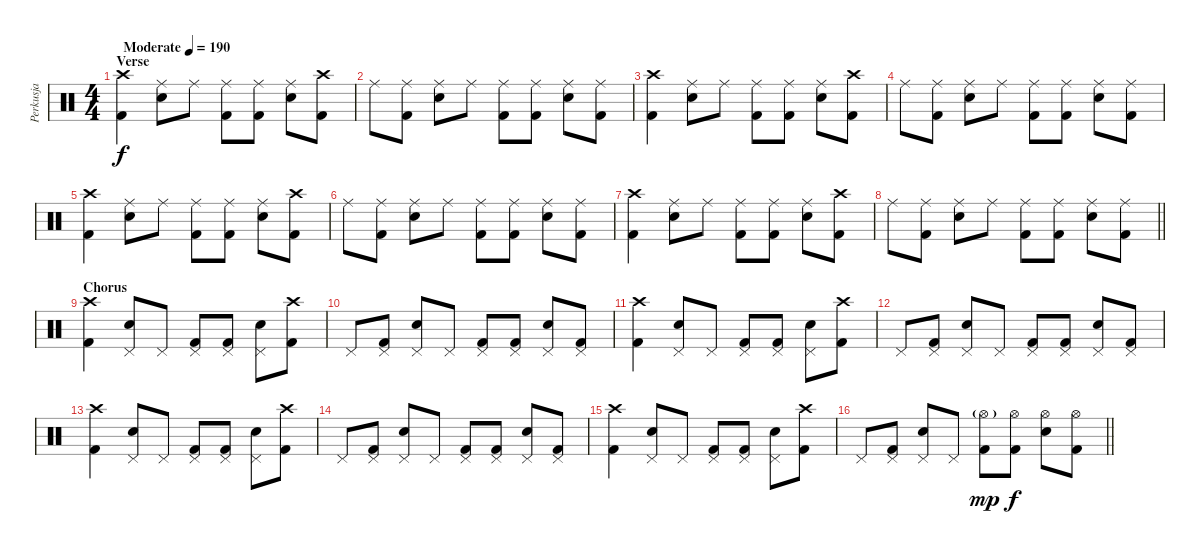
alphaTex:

\track ("Perkusja" "Perkusja") {instrument percussion}
\staff {score}
\articulation defaults
\ts (4 4)
\section ("" "Verse")
\tempo (190 "Moderate")
\clef neutral
\ks c
("Crash high (hit)" "Kick (hit) 2").4{dy f} ("Ride (middle)" "Electric Snare (hit)").8 "Ride (middle)".8 ("Ride (middle)" "Kick (hit) 2").8 ("Ride (middle)" "Kick (hit) 2").8 ("Ride (middle)" "Electric Snare (hit)").8 ("Crash high (hit)" "Kick (hit) 2").8 |
"Ride (middle)".8 ("Ride (middle)" "Kick (hit) 2").8 ("Ride (middle)" "Electric Snare (hit)").8 "Ride (middle)".8 ("Ride (middle)" "Kick (hit) 2").8 ("Ride (middle)" "Kick (hit) 2").8 ("Ride (middle)" "Electric Snare (hit)").8 ("Ride (middle)" "Kick (hit) 2").8 |
("Crash high (hit)" "Kick (hit) 2").4 ("Ride (middle)" "Electric Snare (hit)").8 "Ride (middle)".8 ("Ride (middle)" "Kick (hit) 2").8 ("Ride (middle)" "Kick (hit) 2").8 ("Ride (middle)" "Electric Snare (hit)").8 ("Crash high (hit)" "Kick (hit) 2").8 |
"Ride (middle)".8 ("Ride (middle)" "Kick (hit) 2").8 ("Ride (middle)" "Electric Snare (hit)").8 "Ride (middle)".8 ("Ride (middle)" "Kick (hit) 2").8 ("Ride (middle)" "Kick (hit) 2").8 ("Ride (middle)" "Electric Snare (hit)").8 ("Ride (middle)" "Kick (hit) 2").8 |
("Crash high (hit)" "Kick (hit) 2").4 ("Ride (middle)" "Electric Snare (hit)").8 "Ride (middle)".8 ("Ride (middle)" "Kick (hit) 2").8 ("Ride (middle)" "Kick (hit) 2").8 ("Ride (middle)" "Electric Snare (hit)").8 ("Crash high (hit)" "Kick (hit) 2").8 |
"Ride (middle)".8 ("Ride (middle)" "Kick (hit) 2").8 ("Ride (middle)" "Electric Snare (hit)").8 "Ride (middle)".8 ("Ride (middle)" "Kick (hit) 2").8 ("Ride (middle)" "Kick (hit) 2").8 ("Ride (middle)" "Electric Snare (hit)").8 ("Ride (middle)" "Kick (hit) 2").8 |
("Crash high (hit)" "Kick (hit) 2").4 ("Ride (middle)" "Electric Snare (hit)").8 "Ride (middle)".8 ("Ride (middle)" "Kick (hit) 2").8 ("Ride (middle)" "Kick (hit) 2").8 ("Ride (middle)" "Electric Snare (hit)").8 ("Crash high (hit)" "Kick (hit) 2").8 |
\barLineRight lightlight "Ride (middle)".8
("Ride (middle)" "Kick (hit) 2").8 ("Ride (middle)" "Electric Snare (hit)").8 "Ride (middle)".8 ("Ride (middle)" "Kick (hit) 2").8 ("Ride (middle)" "Kick (hit) 2").8 ("Ride (middle)" "Electric Snare (hit)").8 ("Ride (middle)" "Kick (hit) 2").8 |
\section ("" "Chorus")
("Crash high (hit)" "Kick (hit) 2").4 ("Pedal Hi-Hat (hit)" "Electric Snare (hit)").8 "Pedal Hi-Hat (hit)".8 ("Pedal Hi-Hat (hit)" "Kick (hit) 2").8 ("Pedal Hi-Hat (hit)" "Kick (hit) 2").8 ("Pedal Hi-Hat (hit)" "Electric Snare (hit)").8 ("Crash high (hit)" "Kick (hit) 2").8 |
"Pedal Hi-Hat (hit)".8 ("Pedal Hi-Hat (hit)" "Kick (hit) 2").8 ("Pedal Hi-Hat (hit)" "Electric Snare (hit)").8 "Pedal Hi-Hat (hit)".8 ("Pedal Hi-Hat (hit)" "Kick (hit) 2").8 ("Pedal Hi-Hat (hit)" "Kick (hit) 2").8 ("Pedal Hi-Hat (hit)" "Electric Snare (hit)").8 ("Pedal Hi-Hat (hit)" "Kick (hit) 2").8 |
("Crash high (hit)" "Kick (hit) 2").4 ("Pedal Hi-Hat (hit)" "Electric Snare (hit)").8 "Pedal Hi-Hat (hit)".8 ("Pedal Hi-Hat (hit)" "Kick (hit) 2").8 ("Pedal Hi-Hat (hit)" "Kick (hit) 2").8 ("Pedal Hi-Hat (hit)" "Electric Snare (hit)").8 ("Crash high (hit)" "Kick (hit) 2").8 |
"Pedal Hi-Hat (hit)".8 ("Pedal Hi-Hat (hit)" "Kick (hit) 2").8 ("Pedal Hi-Hat (hit)" "Electric Snare (hit)").8 "Pedal Hi-Hat (hit)".8 ("Pedal Hi-Hat (hit)" "Kick (hit) 2").8 ("Pedal Hi-Hat (hit)" "Kick (hit) 2").8 ("Pedal Hi-Hat (hit)" "Electric Snare (hit)").8 ("Pedal Hi-Hat (hit)" "Kick (hit) 2").8 |
("Crash high (hit)" "Kick (hit) 2").4 ("Pedal Hi-Hat (hit)" "Electric Snare (hit)").8 "Pedal Hi-Hat (hit)".8 ("Pedal Hi-Hat (hit)" "Kick (hit) 2").8 ("Pedal Hi-Hat (hit)" "Kick (hit) 2").8 ("Pedal Hi-Hat (hit)" "Electric Snare (hit)").8 ("Crash high (hit)" "Kick (hit) 2").8 |
"Pedal Hi-Hat (hit)".8 ("Pedal Hi-Hat (hit)" "Kick (hit) 2").8 ("Pedal Hi-Hat (hit)" "Electric Snare (hit)").8 "Pedal Hi-Hat (hit)".8 ("Pedal Hi-Hat (hit)" "Kick (hit) 2").8 ("Pedal Hi-Hat (hit)" "Kick (hit) 2").8 ("Pedal Hi-Hat (hit)" "Electric Snare (hit)").8 ("Pedal Hi-Hat (hit)" "Kick (hit) 2").8 |
("Crash high (hit)" "Kick (hit) 2").4 ("Pedal Hi-Hat (hit)" "Electric Snare (hit)").8 "Pedal Hi-Hat (hit)".8 ("Pedal Hi-Hat (hit)" "Kick (hit) 2").8 ("Pedal Hi-Hat (hit)" "Kick (hit) 2").8 ("Pedal Hi-Hat (hit)" "Electric Snare (hit)").8 ("Crash high (hit)" "Kick (hit) 2").8 |
\barLineRight lightlight "Pedal Hi-Hat (hit)".8
("Pedal Hi-Hat (hit)" "Kick (hit) 2").8 ("Pedal Hi-Hat (hit)" "Electric Snare (hit)").8 "Pedal Hi-Hat (hit)".8 ("Hi-Hat (open)"{g} "Kick (hit) 2").8{dy mp} ("Hi-Hat (open)" "Kick (hit) 2").8{dy f} ("Hi-Hat (open)" "Electric Snare (hit)").8 ("Hi-Hat (open)" "Kick (hit) 2").8
